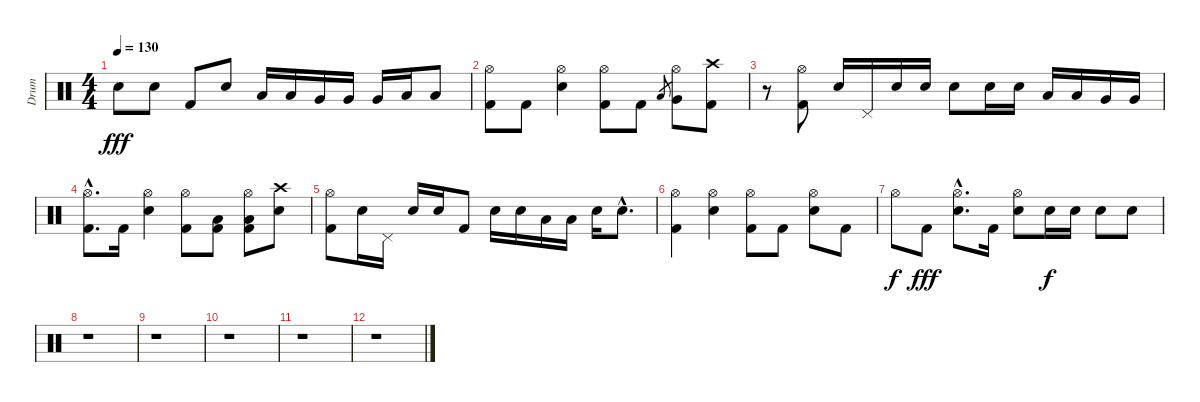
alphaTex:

\track ("Drum" "Drum") {instrument percussion}
\staff {score}
\articulation defaults
\ts (4 4)
\tempo 130
\clef neutral
\ks c "Electric Snare (hit)".8{dy fff} "Electric Snare (hit)".8 "Kick (hit) 2".8 "Electric Snare (hit)".8 "Low Floor Tom (hit)".16 "Low Tom (hit)".16 "Very Low Tom (hit)".16 "Very Low Tom (hit)".16 "Very Low Tom (hit)".16 "Low Floor Tom (hit)".16 "Low Floor Tom (hit)".8
|
("Hi-Hat (open)" "Kick (hit) 2").8 "Kick (hit) 2".8 ("Hi-Hat (open)" "Electric Snare (hit)").4 ("Hi-Hat (open)" "Kick (hit) 2").8 "Kick (hit) 2".8 "Low Floor Tom (hit)".8{gr} ("Hi-Hat (open)" "Very Low Tom (hit)").8 ("Crash high (hit)" "Kick (hit) 2").8 |
r.8 ("Hi-Hat (open)" "Kick (hit) 2").8 "Electric Snare (hit)".16 "Pedal Hi-Hat (hit)".16 "Electric Snare (hit)".16 "Electric Snare (hit)".16 "Electric Snare (hit)".8 "Electric Snare (hit)".16 "Electric Snare (hit)".16 "Low Tom (hit)".16 "Low Tom (hit)".16 "Very Low Tom (hit)".16 "Very Low Tom (hit)".16 |
("Hi-Hat (open)"{hac} "Kick (hit) 2"{hac}).8{d} "Kick (hit) 2".16 ("Hi-Hat (open)" "Electric Snare (hit)").4 ("Hi-Hat (open)" "Kick (hit) 2").8 ("Low Tom (hit)" "Kick (hit) 2").8 ("Hi-Hat (open)" "Low Tom (hit)" "Kick (hit) 2").8 ("Crash high (hit)" "Electric Snare (hit)").8 |
("Hi-Hat (open)" "Kick (hit) 2").8 "Electric Snare (hit)".16 "Pedal Hi-Hat (hit)".16 "Electric Snare (hit)".16 "Electric Snare (hit)".16 "Kick (hit) 2".8 "Electric Snare (hit)".16 "Electric Snare (hit)".16 "Low Tom (hit)".16 "Low Tom (hit)".16 "Electric Snare (hit)".16 "Electric Snare (hit)"{hac}.8{d} |
("Hi-Hat (open)" "Kick (hit) 2").4 ("Hi-Hat (open)" "Electric Snare (hit)").4 ("Hi-Hat (open)" "Kick (hit) 2").8 "Kick (hit) 2".8 ("Hi-Hat (open)" "Electric Snare (hit)").8 "Kick (hit) 2".8 |
"Hi-Hat (open)".8{dy f} "Kick (hit) 2".8{dy fff} ("Hi-Hat (open)"{hac} "Electric Snare (hit)"{hac}).8{d} "Kick (hit) 2".16 ("Hi-Hat (open)" "Electric Snare (hit)").8 "Electric Snare (hit)".16{dy f} "Electric Snare (hit)".16 "Electric Snare (hit)".8 "Electric Snare (hit)".8 |
r.1 |
r.1 |
r.1 |
r.1 |
r.1
